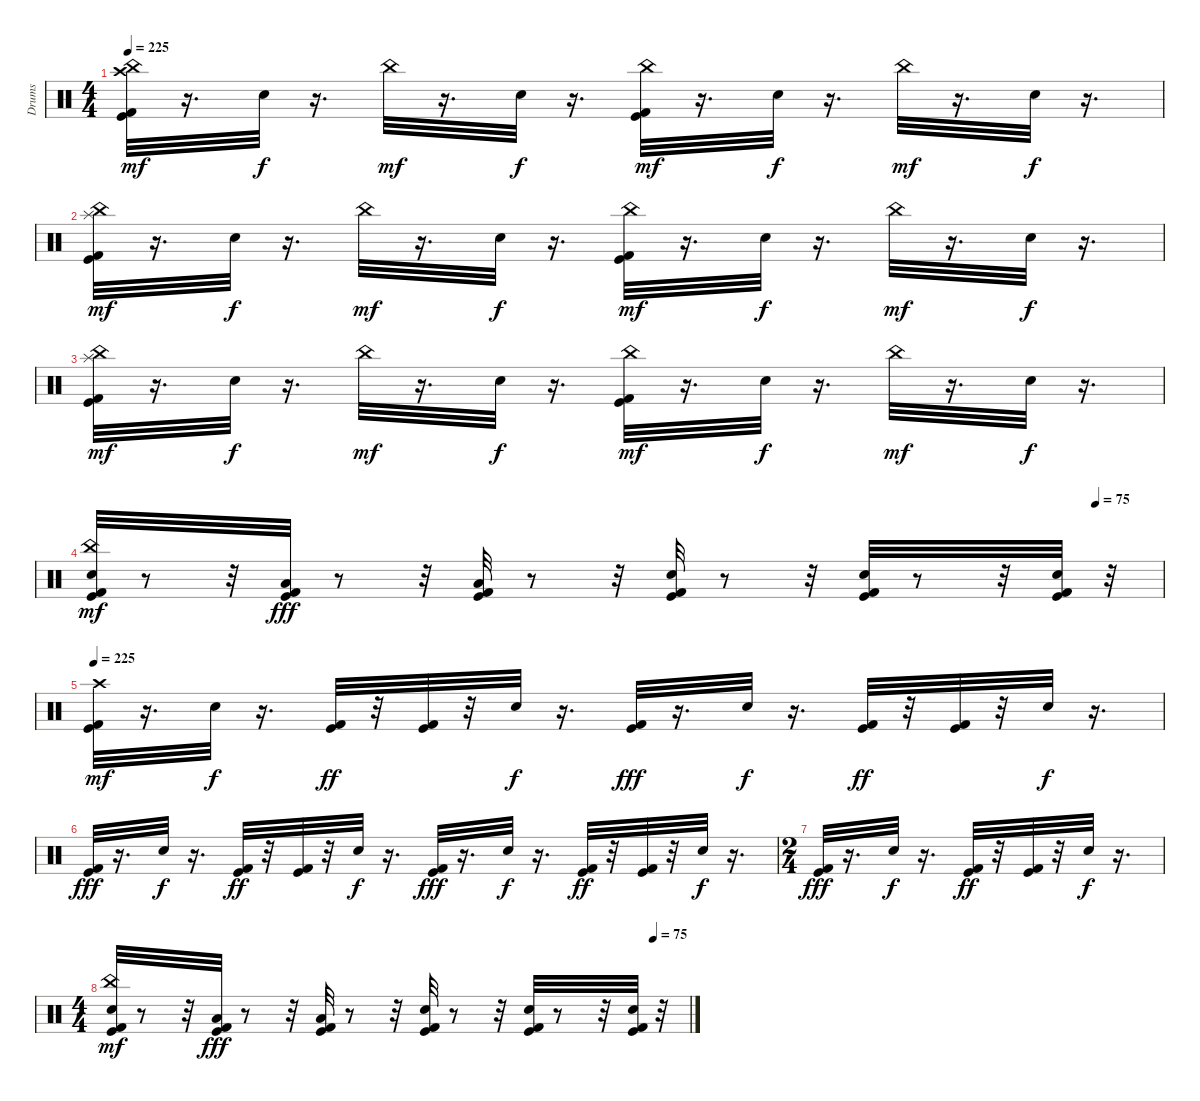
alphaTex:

\track ("Drums" "Drums") {instrument percussion}
\staff {score}
\articulation defaults
\ts (4 4)
\tempo 225
\clef neutral
\ks c
("Kick (hit) 2" "Kick (hit)" "China (hit)" "Crash high (hit)").32{dy mf} r.16{d} "Snare (hit) 2".32{dy f} r.16{d} "China (hit)".32{dy mf} r.16{d} "Snare (hit) 2".32{dy f} r.16{d} ("Kick (hit) 2" "Kick (hit)" "China (hit)").32{dy mf} r.16{d} "Snare (hit) 2".32{dy f} r.16{d} "China (hit)".32{dy mf} r.16{d} "Snare (hit) 2".32{dy f} r.16{d} |
("Kick (hit) 2" "Kick (hit)" "China (hit)" "Splash (hit)").32{dy mf} r.16{d} "Snare (hit) 2".32{dy f} r.16{d} "China (hit)".32{dy mf} r.16{d} "Snare (hit) 2".32{dy f} r.16{d} ("Kick (hit) 2" "Kick (hit)" "China (hit)").32{dy mf} r.16{d} "Snare (hit) 2".32{dy f} r.16{d} "China (hit)".32{dy mf} r.16{d} "Snare (hit) 2".32{dy f} r.16{d} |
("Kick (hit) 2" "Kick (hit)" "China (hit)" "Splash (hit)").32{dy mf} r.16{d} "Snare (hit) 2".32{dy f} r.16{d} "China (hit)".32{dy mf} r.16{d} "Snare (hit) 2".32{dy f} r.16{d} ("Kick (hit) 2" "Kick (hit)" "China (hit)").32{dy mf} r.16{d} "Snare (hit) 2".32{dy f} r.16{d} "China (hit)".32{dy mf} r.16{d} "Snare (hit) 2".32{dy f} r.16{d} |
\tempo (75 0.9375)
("Snare (hit) 2" "Kick (hit) 2" "Kick (hit)" "China (hit)").32{dy mf} r.8 r.32 ("Low Tom (hit)" "Kick (hit) 2" "Kick (hit)").32{dy fff} r.8 r.32 ("Low Floor Tom (hit)" "Kick (hit) 2" "Kick (hit)").32 r.8 r.32 ("Snare (hit) 2" "Kick (hit) 2" "Kick (hit)").32 r.8 r.32 ("Snare (hit) 2" "Kick (hit) 2" "Kick (hit)").32 r.8 r.32 ("Snare (hit) 2" "Kick (hit) 2" "Kick (hit)").32 r.32 |
\tempo 225
("Kick (hit) 2" "Kick (hit)" "Crash high (hit)").32{dy mf} r.16{d} "Snare (hit) 2".32{dy f} r.16{d} ("Kick (hit) 2" "Kick (hit)").32{dy ff} r.32 ("Kick (hit) 2" "Kick (hit)").32 r.32 "Snare (hit) 2".32{dy f} r.16{d} ("Kick (hit) 2" "Kick (hit)").32{dy fff} r.16{d} "Snare (hit) 2".32{dy f} r.16{d} ("Kick (hit) 2" "Kick (hit)").32{dy ff} r.32 ("Kick (hit) 2" "Kick (hit)").32 r.32 "Snare (hit) 2".32{dy f} r.16{d} |
("Kick (hit) 2" "Kick (hit)").32{dy fff} r.16{d} "Snare (hit) 2".32{dy f} r.16{d} ("Kick (hit) 2" "Kick (hit)").32{dy ff} r.32 ("Kick (hit) 2" "Kick (hit)").32 r.32 "Snare (hit) 2".32{dy f} r.16{d} ("Kick (hit) 2" "Kick (hit)").32{dy fff} r.16{d} "Snare (hit) 2".32{dy f} r.16{d} ("Kick (hit) 2" "Kick (hit)").32{dy ff} r.32 ("Kick (hit) 2" "Kick (hit)").32 r.32 "Snare (hit) 2".32{dy f} r.16{d} |
\ts (2 4)
("Kick (hit) 2" "Kick (hit)").32{dy fff} r.16{d} "Snare (hit) 2".32{dy f} r.16{d} ("Kick (hit) 2" "Kick (hit)").32{dy ff} r.32 ("Kick (hit) 2" "Kick (hit)").32 r.32 "Snare (hit) 2".32{dy f} r.16{d} |
\ts (4 4)
\tempo (75 0.9375)
("Snare (hit) 2" "Kick (hit) 2" "Kick (hit)" "China (hit)").32{dy mf} r.8 r.32 ("Low Tom (hit)" "Kick (hit) 2" "Kick (hit)").32{dy fff} r.8 r.32 ("Low Floor Tom (hit)" "Kick (hit) 2" "Kick (hit)").32 r.8 r.32 ("Snare (hit) 2" "Kick (hit) 2" "Kick (hit)").32 r.8 r.32 ("Snare (hit) 2" "Kick (hit) 2" "Kick (hit)").32 r.8 r.32 ("Snare (hit) 2" "Kick (hit) 2" "Kick (hit)").32 r.32
